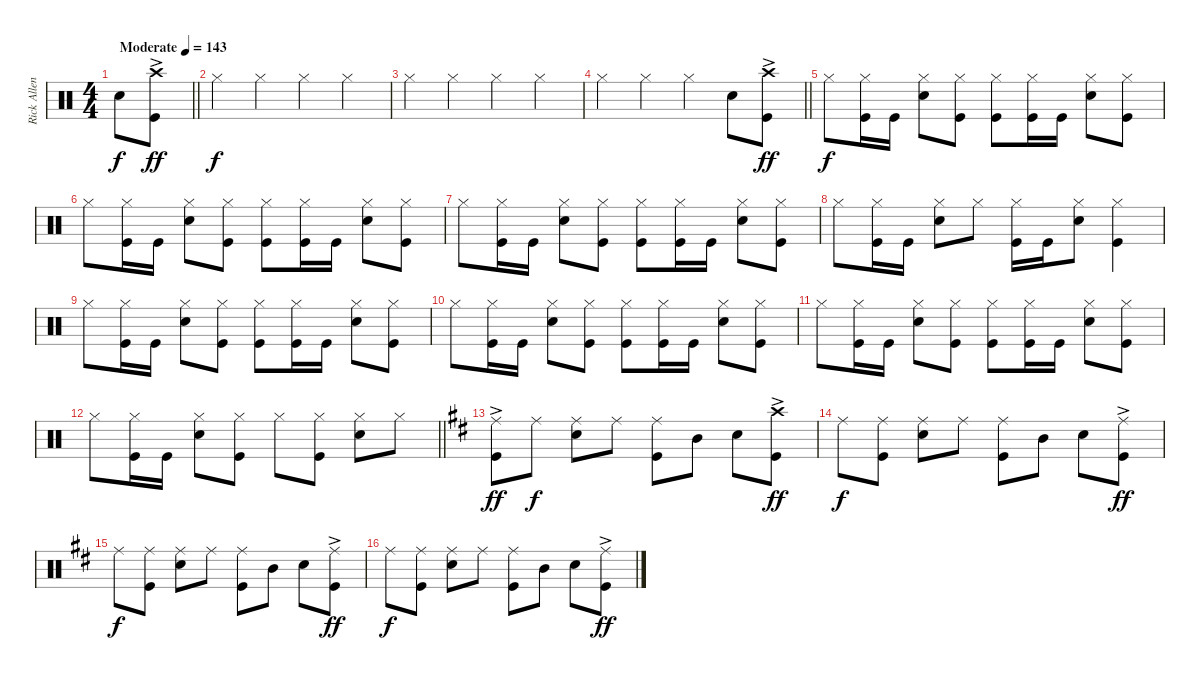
\track ("Rick Allen" "Rick Allen") {instrument percussion}
\staff {score}
\articulation defaults
\ts (4 4)
\tempo (143 "Moderate")
\clef neutral
\barLineRight lightlight
\ks c "Snare (hit) 2".8{dy f}
("Crash high (hit)" "Kick (hit)"{ac}).8{dy ff} |
"Hi-Hat (closed)".4{dy f} "Hi-Hat (closed)".4 "Hi-Hat (closed)".4 "Hi-Hat (closed)".4 |
"Hi-Hat (closed)".4 "Hi-Hat (closed)".4 "Hi-Hat (closed)".4 "Hi-Hat (closed)".4 |
\barLineRight lightlight "Hi-Hat (closed)".4 "Hi-Hat (closed)".4 "Hi-Hat (closed)".4 "Snare (hit) 2".8
("Crash high (hit)" "Kick (hit)"{ac}).8{dy ff} |
"Hi-Hat (closed)".8{dy f} ("Kick (hit)" "Hi-Hat (closed)").16 "Kick (hit)".16 ("Snare (hit) 2" "Hi-Hat (closed)").8 ("Hi-Hat (closed)" "Kick (hit)").8 ("Hi-Hat (closed)" "Kick (hit)").8 ("Hi-Hat (closed)" "Kick (hit)").16 "Kick (hit)".16 ("Hi-Hat (closed)" "Snare (hit) 2").8 ("Hi-Hat (closed)" "Kick (hit)").8 |
"Hi-Hat (closed)".8 ("Kick (hit)" "Hi-Hat (closed)").16 "Kick (hit)".16 ("Snare (hit) 2" "Hi-Hat (closed)").8 ("Hi-Hat (closed)" "Kick (hit)").8 ("Hi-Hat (closed)" "Kick (hit)").8 ("Hi-Hat (closed)" "Kick (hit)").16 "Kick (hit)".16 ("Hi-Hat (closed)" "Snare (hit) 2").8 ("Hi-Hat (closed)" "Kick (hit)").8 |
"Hi-Hat (closed)".8 ("Kick (hit)" "Hi-Hat (closed)").16 "Kick (hit)".16 ("Snare (hit) 2" "Hi-Hat (closed)").8 ("Hi-Hat (closed)" "Kick (hit)").8 ("Hi-Hat (closed)" "Kick (hit)").8 ("Hi-Hat (closed)" "Kick (hit)").16 "Kick (hit)".16 ("Hi-Hat (closed)" "Snare (hit) 2").8 ("Hi-Hat (closed)" "Kick (hit)").8 |
"Hi-Hat (closed)".8 ("Hi-Hat (closed)" "Kick (hit)").16 "Kick (hit)".16 ("Hi-Hat (closed)" "Snare (hit) 2").8 "Hi-Hat (closed)".8 ("Hi-Hat (closed)" "Kick (hit)").16 "Kick (hit)".16 ("Hi-Hat (closed)" "Snare (hit) 2").8 ("Hi-Hat (closed)" "Kick (hit)").4 |
"Hi-Hat (closed)".8 ("Hi-Hat (closed)" "Kick (hit)").16 "Kick (hit)".16 ("Hi-Hat (closed)" "Snare (hit) 2").8 ("Hi-Hat (closed)" "Kick (hit)").8 ("Hi-Hat (closed)" "Kick (hit)").8 ("Hi-Hat (closed)" "Kick (hit)").16 "Kick (hit)".16 ("Hi-Hat (closed)" "Snare (hit) 2").8 ("Hi-Hat (closed)" "Kick (hit)").8 |
"Hi-Hat (closed)".8 ("Hi-Hat (closed)" "Kick (hit)").16 "Kick (hit)".16 ("Hi-Hat (closed)" "Snare (hit) 2").8 ("Hi-Hat (closed)" "Kick (hit)").8 ("Hi-Hat (closed)" "Kick (hit)").8 ("Hi-Hat (closed)" "Kick (hit)").16 "Kick (hit)".16 ("Hi-Hat (closed)" "Snare (hit) 2").8 ("Hi-Hat (closed)" "Kick (hit)").8 |
"Hi-Hat (closed)".8 ("Hi-Hat (closed)" "Kick (hit)").16 "Kick (hit)".16 ("Hi-Hat (closed)" "Snare (hit) 2").8 ("Hi-Hat (closed)" "Kick (hit)").8 ("Hi-Hat (closed)" "Kick (hit)").8 ("Hi-Hat (closed)" "Kick (hit)").16 "Kick (hit)".16 ("Hi-Hat (closed)" "Snare (hit) 2").8 ("Hi-Hat (closed)" "Kick (hit)").8 |
\barLineRight lightlight "Hi-Hat (closed)".8
("Hi-Hat (closed)" "Kick (hit)").16 "Kick (hit)".16 ("Hi-Hat (closed)" "Snare (hit) 2").8 ("Hi-Hat (closed)" "Kick (hit)").8 "Hi-Hat (closed)".8 ("Hi-Hat (closed)" "Kick (hit)").8 ("Hi-Hat (closed)" "Snare (hit) 2").8 "Hi-Hat (closed)".8 |
\ks d
("Ride (middle)" "Kick (hit)"{ac}).8{dy ff} "Ride (middle)".8{dy f} ("Ride (middle)" "Snare (hit) 2").8 "Ride (middle)".8 ("Ride (middle)" "Kick (hit)").8 "Mid Tom (hit)".8 "Snare (hit) 2".8 ("Crash high (hit)" "Kick (hit)"{ac}).8{dy ff} |
"Ride (middle)".8{dy f} ("Ride (middle)" "Kick (hit)").8 ("Ride (middle)" "Snare (hit) 2").8 "Ride (middle)".8 ("Ride (middle)" "Kick (hit)").8 "Mid Tom (hit)".8 "Snare (hit) 2".8 ("Ride (middle)"{ac} "Kick (hit)").8{dy ff} |
"Ride (middle)".8{dy f} ("Ride (middle)" "Kick (hit)").8 ("Ride (middle)" "Snare (hit) 2").8 "Ride (middle)".8 ("Ride (middle)" "Kick (hit)").8 "Mid Tom (hit)".8 "Snare (hit) 2".8 ("Ride (middle)"{ac} "Kick (hit)").8{dy ff} |
"Ride (middle)".8{dy f} ("Ride (middle)" "Kick (hit)").8 ("Ride (middle)" "Snare (hit) 2").8 "Ride (middle)".8 ("Ride (middle)" "Kick (hit)").8 "Mid Tom (hit)".8 "Snare (hit) 2".8 ("Ride (middle)"{ac} "Kick (hit)").8{dy ff}
